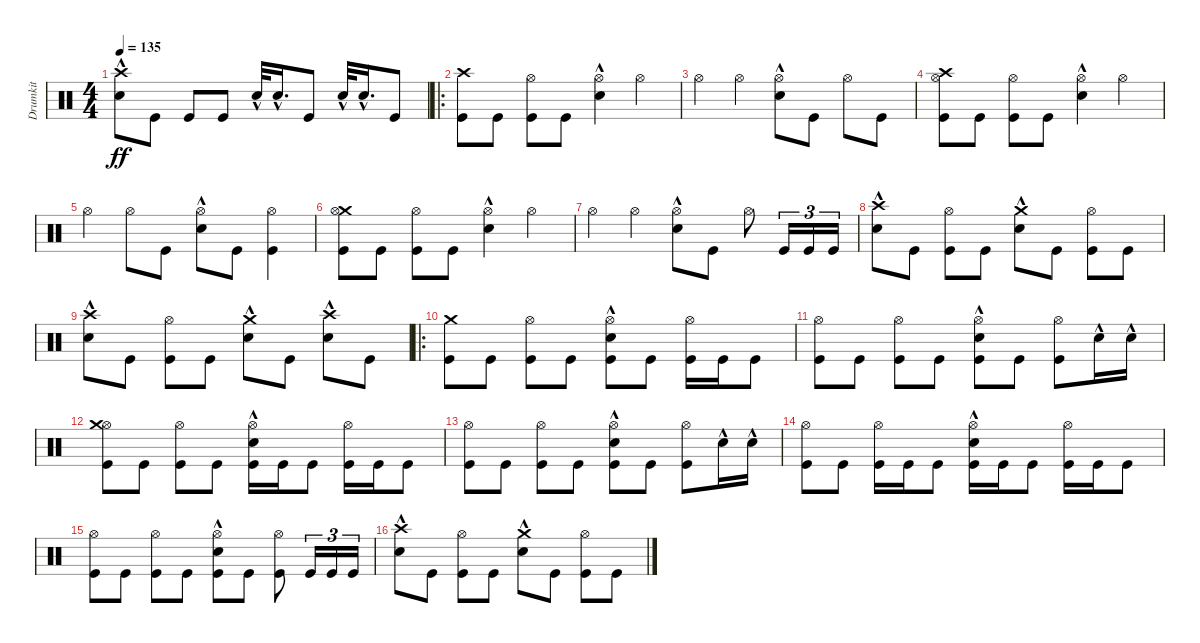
\track ("Drumkit" "Drumkit") {instrument percussion}
\staff {score}
\articulation defaults
\ts (4 4)
\tempo 135
\clef neutral
\ks c
("Snare (hit) 2"{hac} "Crash high (hit)").8{dy ff} "Kick (hit)".8 "Kick (hit)".8 "Kick (hit)".8 "Snare (hit) 2"{hac}.32 "Snare (hit) 2"{hac}.16{d} "Kick (hit)".8 "Snare (hit) 2"{hac}.32 "Snare (hit) 2"{hac}.16{d} "Kick (hit)".8 |
\ro
("Kick (hit)" "Crash high (hit)").8 "Kick (hit)".8 ("Kick (hit)" "Hi-Hat (open)").8 "Kick (hit)".8 ("Hi-Hat (open)" "Snare (hit) 2"{hac}).4 "Hi-Hat (open)".4 |
"Hi-Hat (open)".4 "Hi-Hat (open)".4 ("Hi-Hat (open)" "Snare (hit) 2"{hac}).8 "Kick (hit)".8 "Hi-Hat (open)".8 "Kick (hit)".8 |
("Kick (hit)" "Crash high (hit)" "Hi-Hat (open)").8 "Kick (hit)".8 ("Kick (hit)" "Hi-Hat (open)").8 "Kick (hit)".8 ("Hi-Hat (open)" "Snare (hit) 2"{hac}).4 "Hi-Hat (open)".4 |
"Hi-Hat (open)".4 "Hi-Hat (open)".8 "Kick (hit)".8 ("Hi-Hat (open)" "Snare (hit) 2"{hac}).8 "Kick (hit)".8 ("Hi-Hat (open)" "Kick (hit)").4 |
("Kick (hit)" "Crash medium (hit)" "Hi-Hat (open)").8 "Kick (hit)".8 ("Kick (hit)" "Hi-Hat (open)").8 "Kick (hit)".8 ("Hi-Hat (open)" "Snare (hit) 2"{hac}).4 "Hi-Hat (open)".4 |
"Hi-Hat (open)".4 "Hi-Hat (open)".4 ("Hi-Hat (open)" "Snare (hit) 2"{hac}).8 "Kick (hit)".8 "Hi-Hat (open)".8 "Kick (hit)".16{tu (3 2)} "Kick (hit)".16{tu (3 2)} "Kick (hit)".16{tu (3 2)} |
("Snare (hit) 2"{hac} "Crash high (hit)").8 "Kick (hit)".8 ("Kick (hit)" "Hi-Hat (open)").8 "Kick (hit)".8 ("Snare (hit) 2"{hac} "Crash medium (hit)").8 "Kick (hit)".8 ("Kick (hit)" "Hi-Hat (open)").8 "Kick (hit)".8 |
("Snare (hit) 2"{hac} "Crash high (hit)").8 "Kick (hit)".8 ("Kick (hit)" "Hi-Hat (open)").8 "Kick (hit)".8 ("Snare (hit) 2"{hac} "Crash medium (hit)").8 "Kick (hit)".8 ("Snare (hit) 2"{hac} "Crash high (hit)").8 "Kick (hit)".8 |
\ro
("Kick (hit)" "Crash medium (hit)").8 "Kick (hit)".8 ("Kick (hit)" "Hi-Hat (open)").8 "Kick (hit)".8 ("Kick (hit)" "Snare (hit) 2"{hac} "Hi-Hat (open)").8 "Kick (hit)".8 ("Kick (hit)" "Hi-Hat (open)").16 "Kick (hit)".16 "Kick (hit)".8 |
("Kick (hit)" "Hi-Hat (open)").8 "Kick (hit)".8 ("Kick (hit)" "Hi-Hat (open)").8 "Kick (hit)".8 ("Kick (hit)" "Snare (hit) 2"{hac} "Hi-Hat (open)").8 "Kick (hit)".8 ("Kick (hit)" "Hi-Hat (open)").8 "Snare (hit) 2"{hac}.16 "Snare (hit) 2"{hac}.16 |
("Kick (hit)" "Hi-Hat (open)" "Crash medium (hit)").8 "Kick (hit)".8 ("Kick (hit)" "Hi-Hat (open)").8 "Kick (hit)".8 ("Kick (hit)" "Hi-Hat (open)" "Snare (hit) 2"{hac}).16 "Kick (hit)".16 "Kick (hit)".8 ("Kick (hit)" "Hi-Hat (open)").16 "Kick (hit)".16 "Kick (hit)".8 |
("Kick (hit)" "Hi-Hat (open)").8 "Kick (hit)".8 ("Kick (hit)" "Hi-Hat (open)").8 "Kick (hit)".8 ("Kick (hit)" "Hi-Hat (open)" "Snare (hit) 2"{hac}).8 "Kick (hit)".8 ("Kick (hit)" "Hi-Hat (open)").8 "Snare (hit) 2"{hac}.16 "Snare (hit) 2"{hac}.16 |
("Kick (hit)" "Hi-Hat (open)").8 "Kick (hit)".8 ("Kick (hit)" "Hi-Hat (open)").16 "Kick (hit)".16 "Kick (hit)".8 ("Kick (hit)" "Hi-Hat (open)" "Snare (hit) 2"{hac}).16 "Kick (hit)".16 "Kick (hit)".8 ("Kick (hit)" "Hi-Hat (open)").16 "Kick (hit)".16 "Kick (hit)".8 |
("Kick (hit)" "Hi-Hat (open)").8 "Kick (hit)".8 ("Kick (hit)" "Hi-Hat (open)").8 "Kick (hit)".8 ("Kick (hit)" "Hi-Hat (open)" "Snare (hit) 2"{hac}).8 "Kick (hit)".8 ("Kick (hit)" "Hi-Hat (open)").8 "Kick (hit)".16{tu (3 2)} "Kick (hit)".16{tu (3 2)} "Kick (hit)".16{tu (3 2)} |
("Snare (hit) 2"{hac} "Crash high (hit)").8 "Kick (hit)".8 ("Kick (hit)" "Hi-Hat (open)").8 "Kick (hit)".8 ("Snare (hit) 2"{hac} "Crash medium (hit)").8 "Kick (hit)".8 ("Kick (hit)" "Hi-Hat (open)").8 "Kick (hit)".8
